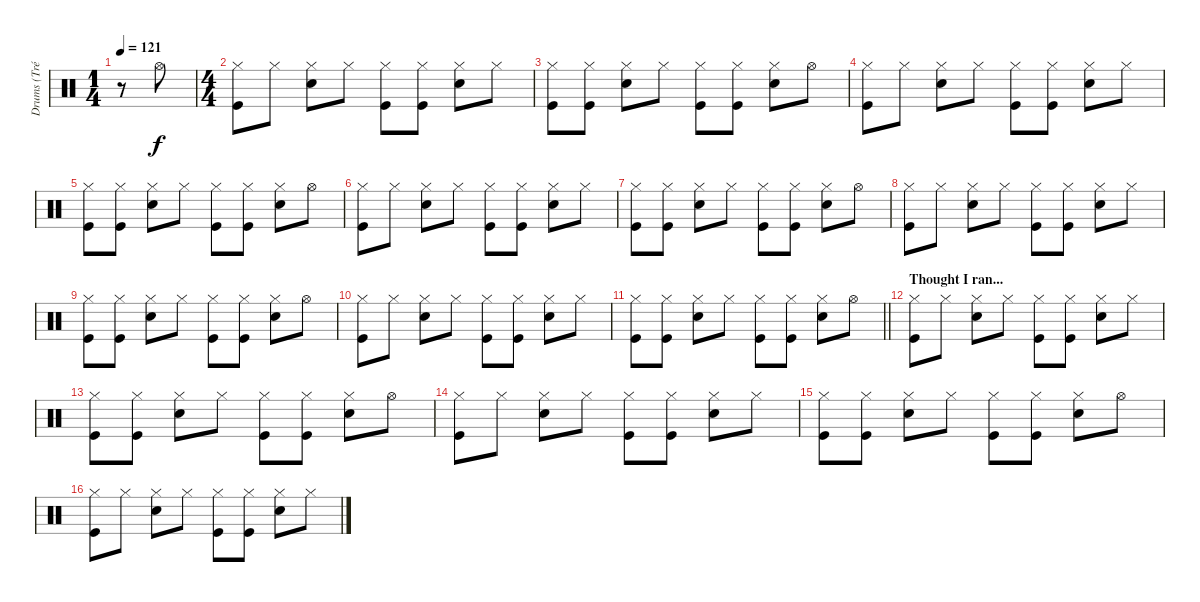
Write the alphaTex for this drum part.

\track ("Drums (Tré)" "Drums (Tré") {instrument percussion}
\staff {score}
\articulation defaults
\ts (1 4)
\tempo 121
\clef neutral
\ks c
r.8{dy f} "Hi-Hat (open)".8 |
\ts (4 4)
("Hi-Hat (closed)" "Kick (hit)").8 "Hi-Hat (closed)".8 ("Hi-Hat (closed)" "Snare (hit) 2").8 "Hi-Hat (closed)".8 ("Hi-Hat (closed)" "Kick (hit)").8 ("Hi-Hat (closed)" "Kick (hit)").8 ("Hi-Hat (closed)" "Snare (hit) 2").8 "Hi-Hat (closed)".8 |
("Hi-Hat (closed)" "Kick (hit)").8 ("Hi-Hat (closed)" "Kick (hit)").8 ("Hi-Hat (closed)" "Snare (hit) 2").8 "Hi-Hat (closed)".8 ("Hi-Hat (closed)" "Kick (hit)").8 ("Hi-Hat (closed)" "Kick (hit)").8 ("Hi-Hat (closed)" "Snare (hit) 2").8 "Hi-Hat (open)".8 |
("Hi-Hat (closed)" "Kick (hit)").8 "Hi-Hat (closed)".8 ("Hi-Hat (closed)" "Snare (hit) 2").8 "Hi-Hat (closed)".8 ("Hi-Hat (closed)" "Kick (hit)").8 ("Hi-Hat (closed)" "Kick (hit)").8 ("Hi-Hat (closed)" "Snare (hit) 2").8 "Hi-Hat (closed)".8 |
("Hi-Hat (closed)" "Kick (hit)").8 ("Hi-Hat (closed)" "Kick (hit)").8 ("Hi-Hat (closed)" "Snare (hit) 2").8 "Hi-Hat (closed)".8 ("Hi-Hat (closed)" "Kick (hit)").8 ("Hi-Hat (closed)" "Kick (hit)").8 ("Hi-Hat (closed)" "Snare (hit) 2").8 "Hi-Hat (open)".8 |
("Hi-Hat (closed)" "Kick (hit)").8 "Hi-Hat (closed)".8 ("Hi-Hat (closed)" "Snare (hit) 2").8 "Hi-Hat (closed)".8 ("Hi-Hat (closed)" "Kick (hit)").8 ("Hi-Hat (closed)" "Kick (hit)").8 ("Hi-Hat (closed)" "Snare (hit) 2").8 "Hi-Hat (closed)".8 |
("Hi-Hat (closed)" "Kick (hit)").8 ("Hi-Hat (closed)" "Kick (hit)").8 ("Hi-Hat (closed)" "Snare (hit) 2").8 "Hi-Hat (closed)".8 ("Hi-Hat (closed)" "Kick (hit)").8 ("Hi-Hat (closed)" "Kick (hit)").8 ("Hi-Hat (closed)" "Snare (hit) 2").8 "Hi-Hat (open)".8 |
("Hi-Hat (closed)" "Kick (hit)").8 "Hi-Hat (closed)".8 ("Hi-Hat (closed)" "Snare (hit) 2").8 "Hi-Hat (closed)".8 ("Hi-Hat (closed)" "Kick (hit)").8 ("Hi-Hat (closed)" "Kick (hit)").8 ("Hi-Hat (closed)" "Snare (hit) 2").8 "Hi-Hat (closed)".8 |
("Hi-Hat (closed)" "Kick (hit)").8 ("Hi-Hat (closed)" "Kick (hit)").8 ("Hi-Hat (closed)" "Snare (hit) 2").8 "Hi-Hat (closed)".8 ("Hi-Hat (closed)" "Kick (hit)").8 ("Hi-Hat (closed)" "Kick (hit)").8 ("Hi-Hat (closed)" "Snare (hit) 2").8 "Hi-Hat (open)".8 |
("Hi-Hat (closed)" "Kick (hit)").8 "Hi-Hat (closed)".8 ("Hi-Hat (closed)" "Snare (hit) 2").8 "Hi-Hat (closed)".8 ("Hi-Hat (closed)" "Kick (hit)").8 ("Hi-Hat (closed)" "Kick (hit)").8 ("Hi-Hat (closed)" "Snare (hit) 2").8 "Hi-Hat (closed)".8 |
\barLineRight lightlight
("Hi-Hat (closed)" "Kick (hit)").8 ("Hi-Hat (closed)" "Kick (hit)").8 ("Hi-Hat (closed)" "Snare (hit) 2").8 "Hi-Hat (closed)".8 ("Hi-Hat (closed)" "Kick (hit)").8 ("Hi-Hat (closed)" "Kick (hit)").8 ("Hi-Hat (closed)" "Snare (hit) 2").8 "Hi-Hat (open)".8 |
\section ("" "Thought I ran...")
("Hi-Hat (closed)" "Kick (hit)").8 "Hi-Hat (closed)".8 ("Hi-Hat (closed)" "Snare (hit) 2").8 "Hi-Hat (closed)".8 ("Hi-Hat (closed)" "Kick (hit)").8 ("Hi-Hat (closed)" "Kick (hit)").8 ("Hi-Hat (closed)" "Snare (hit) 2").8 "Hi-Hat (closed)".8 |
("Hi-Hat (closed)" "Kick (hit)").8 ("Hi-Hat (closed)" "Kick (hit)").8 ("Hi-Hat (closed)" "Snare (hit) 2").8 "Hi-Hat (closed)".8 ("Hi-Hat (closed)" "Kick (hit)").8 ("Hi-Hat (closed)" "Kick (hit)").8 ("Hi-Hat (closed)" "Snare (hit) 2").8 "Hi-Hat (open)".8 |
("Hi-Hat (closed)" "Kick (hit)").8 "Hi-Hat (closed)".8 ("Hi-Hat (closed)" "Snare (hit) 2").8 "Hi-Hat (closed)".8 ("Hi-Hat (closed)" "Kick (hit)").8 ("Hi-Hat (closed)" "Kick (hit)").8 ("Hi-Hat (closed)" "Snare (hit) 2").8 "Hi-Hat (closed)".8 |
("Hi-Hat (closed)" "Kick (hit)").8 ("Hi-Hat (closed)" "Kick (hit)").8 ("Hi-Hat (closed)" "Snare (hit) 2").8 "Hi-Hat (closed)".8 ("Hi-Hat (closed)" "Kick (hit)").8 ("Hi-Hat (closed)" "Kick (hit)").8 ("Hi-Hat (closed)" "Snare (hit) 2").8 "Hi-Hat (open)".8 |
("Hi-Hat (closed)" "Kick (hit)").8 "Hi-Hat (closed)".8 ("Hi-Hat (closed)" "Snare (hit) 2").8 "Hi-Hat (closed)".8 ("Hi-Hat (closed)" "Kick (hit)").8 ("Hi-Hat (closed)" "Kick (hit)").8 ("Hi-Hat (closed)" "Snare (hit) 2").8 "Hi-Hat (closed)".8
